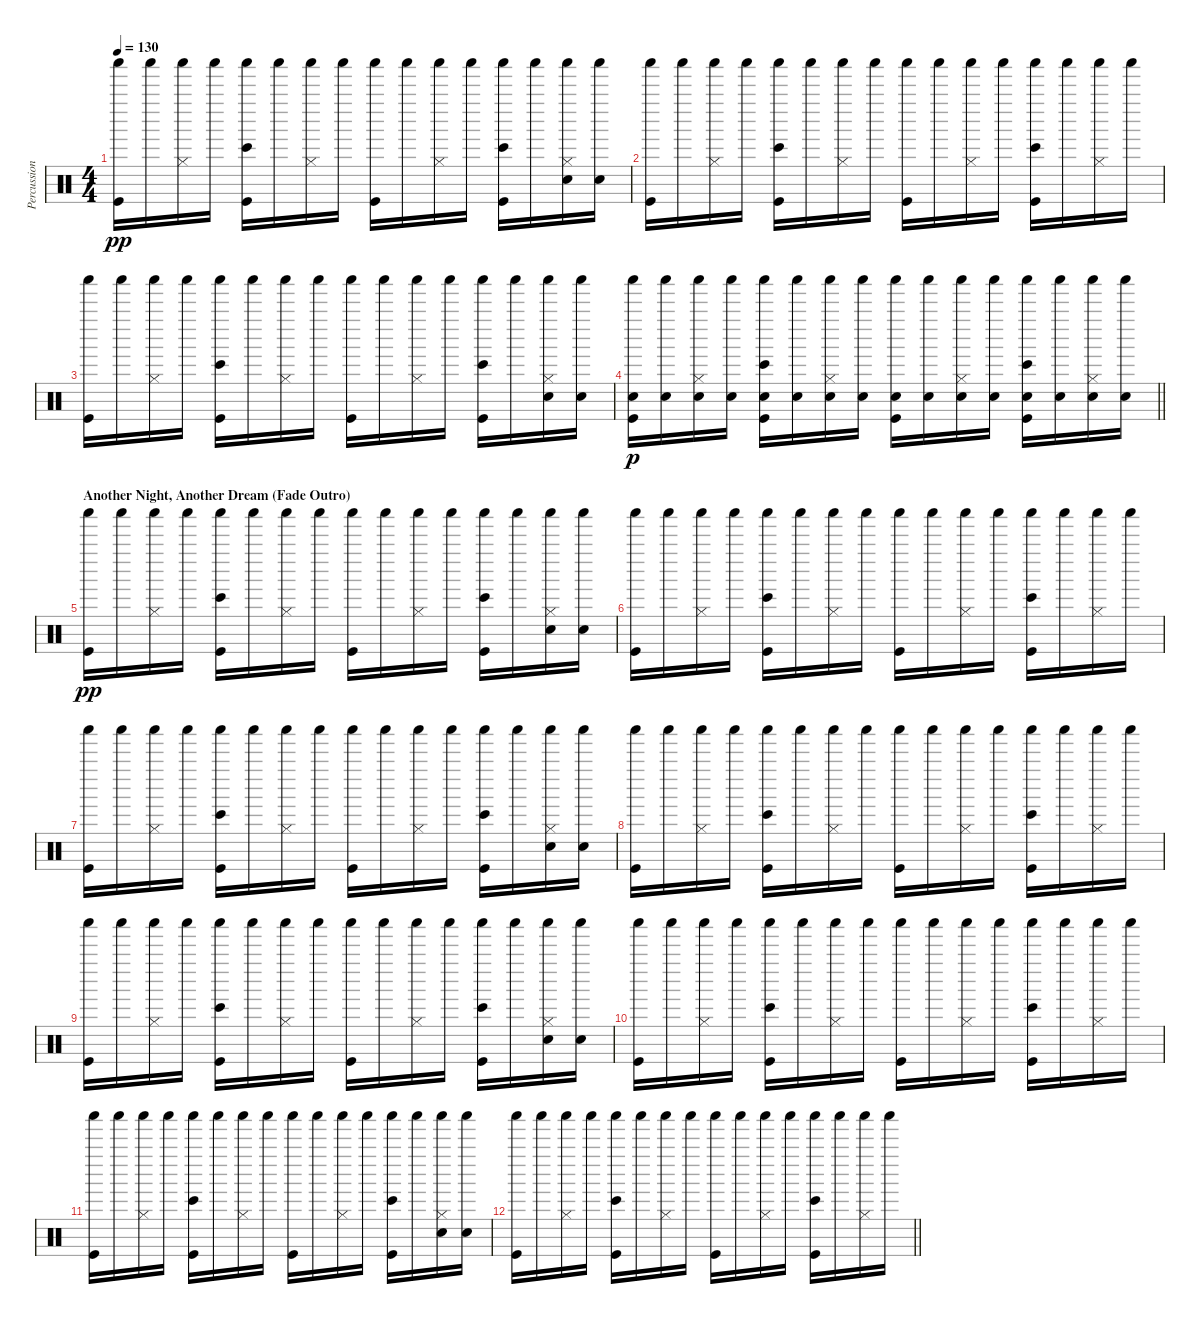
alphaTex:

\track ("Percussion" "Percussion") {instrument percussion}
\staff {score}
\articulation defaults
\ts (4 4)
\tempo 130
\clef neutral
\ks c
("Kick (hit)" "Shaker (hit)").16{dy pp} "Shaker (hit)".16 ("Hi-Hat (closed)" "Shaker (hit)").16 "Shaker (hit)".16 ("Kick (hit)" "Bongo High (hit)" "Shaker (hit)").16 "Shaker (hit)".16 ("Hi-Hat (closed)" "Shaker (hit)").16 "Shaker (hit)".16 ("Kick (hit)" "Shaker (hit)").16 "Shaker (hit)".16 ("Hi-Hat (closed)" "Shaker (hit)").16 "Shaker (hit)".16 ("Kick (hit)" "Bongo High (hit)" "Shaker (hit)").16 "Shaker (hit)".16 ("Electric Snare (hit)" "Hi-Hat (closed)" "Shaker (hit)").16 ("Electric Snare (hit)" "Shaker (hit)").16 |
("Kick (hit)" "Shaker (hit)").16 "Shaker (hit)".16 ("Hi-Hat (closed)" "Shaker (hit)").16 "Shaker (hit)".16 ("Kick (hit)" "Bongo High (hit)" "Shaker (hit)").16 "Shaker (hit)".16 ("Hi-Hat (closed)" "Shaker (hit)").16 "Shaker (hit)".16 ("Kick (hit)" "Shaker (hit)").16 "Shaker (hit)".16 ("Hi-Hat (closed)" "Shaker (hit)").16 "Shaker (hit)".16 ("Kick (hit)" "Bongo High (hit)" "Shaker (hit)").16 "Shaker (hit)".16 ("Hi-Hat (closed)" "Shaker (hit)").16 "Shaker (hit)".16 |
("Kick (hit)" "Shaker (hit)").16 "Shaker (hit)".16 ("Hi-Hat (closed)" "Shaker (hit)").16 "Shaker (hit)".16 ("Kick (hit)" "Bongo High (hit)" "Shaker (hit)").16 "Shaker (hit)".16 ("Hi-Hat (closed)" "Shaker (hit)").16 "Shaker (hit)".16 ("Kick (hit)" "Shaker (hit)").16 "Shaker (hit)".16 ("Hi-Hat (closed)" "Shaker (hit)").16 "Shaker (hit)".16 ("Kick (hit)" "Bongo High (hit)" "Shaker (hit)").16 "Shaker (hit)".16 ("Electric Snare (hit)" "Hi-Hat (closed)" "Shaker (hit)").16 ("Electric Snare (hit)" "Shaker (hit)").16 |
\barLineRight lightlight
("Kick (hit)" "Electric Snare (hit)" "Shaker (hit)").16{dy p} ("Electric Snare (hit)" "Shaker (hit)").16 ("Electric Snare (hit)" "Hi-Hat (closed)" "Shaker (hit)").16 ("Electric Snare (hit)" "Shaker (hit)").16 ("Kick (hit)" "Bongo High (hit)" "Electric Snare (hit)" "Shaker (hit)").16 ("Electric Snare (hit)" "Shaker (hit)").16 ("Electric Snare (hit)" "Hi-Hat (closed)" "Shaker (hit)").16 ("Electric Snare (hit)" "Shaker (hit)").16 ("Kick (hit)" "Electric Snare (hit)" "Shaker (hit)").16 ("Electric Snare (hit)" "Shaker (hit)").16 ("Electric Snare (hit)" "Hi-Hat (closed)" "Shaker (hit)").16 ("Electric Snare (hit)" "Shaker (hit)").16 ("Kick (hit)" "Bongo High (hit)" "Electric Snare (hit)" "Shaker (hit)").16 ("Electric Snare (hit)" "Shaker (hit)").16 ("Electric Snare (hit)" "Hi-Hat (closed)" "Shaker (hit)").16 ("Electric Snare (hit)" "Shaker (hit)").16 |
\section ("" "Another Night, Another Dream (Fade Outro)")
("Kick (hit)" "Shaker (hit)").16{dy pp} "Shaker (hit)".16 ("Hi-Hat (closed)" "Shaker (hit)").16 "Shaker (hit)".16 ("Kick (hit)" "Bongo High (hit)" "Shaker (hit)").16 "Shaker (hit)".16 ("Hi-Hat (closed)" "Shaker (hit)").16 "Shaker (hit)".16 ("Kick (hit)" "Shaker (hit)").16 "Shaker (hit)".16 ("Hi-Hat (closed)" "Shaker (hit)").16 "Shaker (hit)".16 ("Kick (hit)" "Bongo High (hit)" "Shaker (hit)").16 "Shaker (hit)".16 ("Electric Snare (hit)" "Hi-Hat (closed)" "Shaker (hit)").16 ("Electric Snare (hit)" "Shaker (hit)").16 |
("Kick (hit)" "Shaker (hit)").16 "Shaker (hit)".16 ("Hi-Hat (closed)" "Shaker (hit)").16 "Shaker (hit)".16 ("Kick (hit)" "Bongo High (hit)" "Shaker (hit)").16 "Shaker (hit)".16 ("Hi-Hat (closed)" "Shaker (hit)").16 "Shaker (hit)".16 ("Kick (hit)" "Shaker (hit)").16 "Shaker (hit)".16 ("Hi-Hat (closed)" "Shaker (hit)").16 "Shaker (hit)".16 ("Kick (hit)" "Bongo High (hit)" "Shaker (hit)").16 "Shaker (hit)".16 ("Hi-Hat (closed)" "Shaker (hit)").16 "Shaker (hit)".16 |
("Kick (hit)" "Shaker (hit)").16 "Shaker (hit)".16 ("Hi-Hat (closed)" "Shaker (hit)").16 "Shaker (hit)".16 ("Kick (hit)" "Bongo High (hit)" "Shaker (hit)").16 "Shaker (hit)".16 ("Hi-Hat (closed)" "Shaker (hit)").16 "Shaker (hit)".16 ("Kick (hit)" "Shaker (hit)").16 "Shaker (hit)".16 ("Hi-Hat (closed)" "Shaker (hit)").16 "Shaker (hit)".16 ("Kick (hit)" "Bongo High (hit)" "Shaker (hit)").16 "Shaker (hit)".16 ("Electric Snare (hit)" "Hi-Hat (closed)" "Shaker (hit)").16 ("Electric Snare (hit)" "Shaker (hit)").16 |
("Kick (hit)" "Shaker (hit)").16 "Shaker (hit)".16 ("Hi-Hat (closed)" "Shaker (hit)").16 "Shaker (hit)".16 ("Kick (hit)" "Bongo High (hit)" "Shaker (hit)").16 "Shaker (hit)".16 ("Hi-Hat (closed)" "Shaker (hit)").16 "Shaker (hit)".16 ("Kick (hit)" "Shaker (hit)").16 "Shaker (hit)".16 ("Hi-Hat (closed)" "Shaker (hit)").16 "Shaker (hit)".16 ("Kick (hit)" "Bongo High (hit)" "Shaker (hit)").16 "Shaker (hit)".16 ("Hi-Hat (closed)" "Shaker (hit)").16 "Shaker (hit)".16 |
("Kick (hit)" "Shaker (hit)").16 "Shaker (hit)".16 ("Hi-Hat (closed)" "Shaker (hit)").16 "Shaker (hit)".16 ("Kick (hit)" "Bongo High (hit)" "Shaker (hit)").16 "Shaker (hit)".16 ("Hi-Hat (closed)" "Shaker (hit)").16 "Shaker (hit)".16 ("Kick (hit)" "Shaker (hit)").16 "Shaker (hit)".16 ("Hi-Hat (closed)" "Shaker (hit)").16 "Shaker (hit)".16 ("Kick (hit)" "Bongo High (hit)" "Shaker (hit)").16 "Shaker (hit)".16 ("Electric Snare (hit)" "Hi-Hat (closed)" "Shaker (hit)").16 ("Electric Snare (hit)" "Shaker (hit)").16 |
("Kick (hit)" "Shaker (hit)").16 "Shaker (hit)".16 ("Hi-Hat (closed)" "Shaker (hit)").16 "Shaker (hit)".16 ("Kick (hit)" "Bongo High (hit)" "Shaker (hit)").16 "Shaker (hit)".16 ("Hi-Hat (closed)" "Shaker (hit)").16 "Shaker (hit)".16 ("Kick (hit)" "Shaker (hit)").16 "Shaker (hit)".16 ("Hi-Hat (closed)" "Shaker (hit)").16 "Shaker (hit)".16 ("Kick (hit)" "Bongo High (hit)" "Shaker (hit)").16 "Shaker (hit)".16 ("Hi-Hat (closed)" "Shaker (hit)").16 "Shaker (hit)".16 |
("Kick (hit)" "Shaker (hit)").16 "Shaker (hit)".16 ("Hi-Hat (closed)" "Shaker (hit)").16 "Shaker (hit)".16 ("Kick (hit)" "Bongo High (hit)" "Shaker (hit)").16 "Shaker (hit)".16 ("Hi-Hat (closed)" "Shaker (hit)").16 "Shaker (hit)".16 ("Kick (hit)" "Shaker (hit)").16 "Shaker (hit)".16 ("Hi-Hat (closed)" "Shaker (hit)").16 "Shaker (hit)".16 ("Kick (hit)" "Bongo High (hit)" "Shaker (hit)").16 "Shaker (hit)".16 ("Electric Snare (hit)" "Hi-Hat (closed)" "Shaker (hit)").16 ("Electric Snare (hit)" "Shaker (hit)").16 |
\barLineRight lightlight
("Kick (hit)" "Shaker (hit)").16 "Shaker (hit)".16 ("Hi-Hat (closed)" "Shaker (hit)").16 "Shaker (hit)".16 ("Kick (hit)" "Bongo High (hit)" "Shaker (hit)").16 "Shaker (hit)".16 ("Hi-Hat (closed)" "Shaker (hit)").16 "Shaker (hit)".16 ("Kick (hit)" "Shaker (hit)").16 "Shaker (hit)".16 ("Hi-Hat (closed)" "Shaker (hit)").16 "Shaker (hit)".16 ("Kick (hit)" "Bongo High (hit)" "Shaker (hit)").16 "Shaker (hit)".16 ("Hi-Hat (closed)" "Shaker (hit)").16 "Shaker (hit)".16
